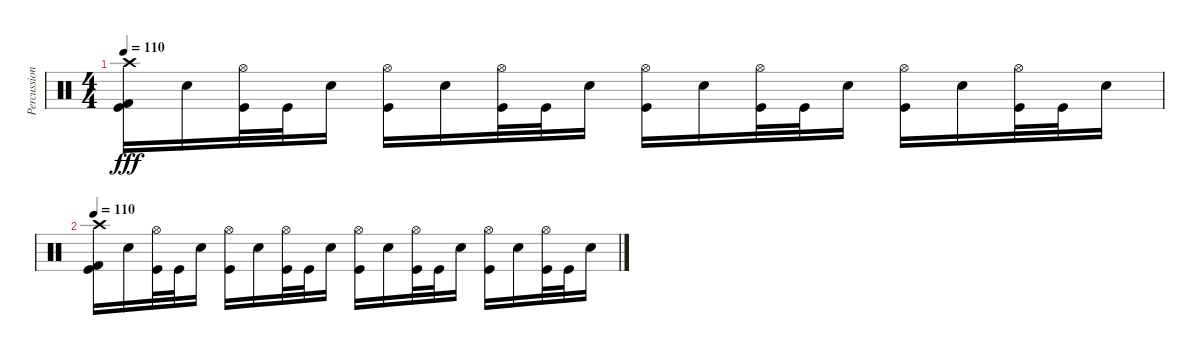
\track ("Percussion" "Percussion") {instrument percussion}
\staff {score}
\articulation defaults
\ts (4 4)
\tempo 110
\clef neutral
\ks c
("Crash high (hit)" "Kick (hit)" "Kick (hit) 2").16{dy fff} "Electric Snare (hit)".16 ("Hi-Hat (open)" "Kick (hit)").32 "Kick (hit)".32 "Electric Snare (hit)".16 ("Hi-Hat (open)" "Kick (hit)").16 "Electric Snare (hit)".16 ("Hi-Hat (open)" "Kick (hit)").32 "Kick (hit)".32 "Electric Snare (hit)".16 ("Hi-Hat (open)" "Kick (hit)").16 "Electric Snare (hit)".16 ("Hi-Hat (open)" "Kick (hit)").32 "Kick (hit)".32 "Electric Snare (hit)".16 ("Hi-Hat (open)" "Kick (hit)").16 "Electric Snare (hit)".16 ("Hi-Hat (open)" "Kick (hit)").32 "Kick (hit)".32 "Electric Snare (hit)".16 |
\tempo 110
("Crash high (hit)" "Kick (hit)" "Kick (hit) 2").16 "Electric Snare (hit)".16 ("Hi-Hat (open)" "Kick (hit)").32 "Kick (hit)".32 "Electric Snare (hit)".16 ("Hi-Hat (open)" "Kick (hit)").16 "Electric Snare (hit)".16 ("Hi-Hat (open)" "Kick (hit)").32 "Kick (hit)".32 "Electric Snare (hit)".16 ("Hi-Hat (open)" "Kick (hit)").16 "Electric Snare (hit)".16 ("Hi-Hat (open)" "Kick (hit)").32 "Kick (hit)".32 "Electric Snare (hit)".16 ("Hi-Hat (open)" "Kick (hit)").16 "Electric Snare (hit)".16 ("Hi-Hat (open)" "Kick (hit)").32 "Kick (hit)".32 "Electric Snare (hit)".16
